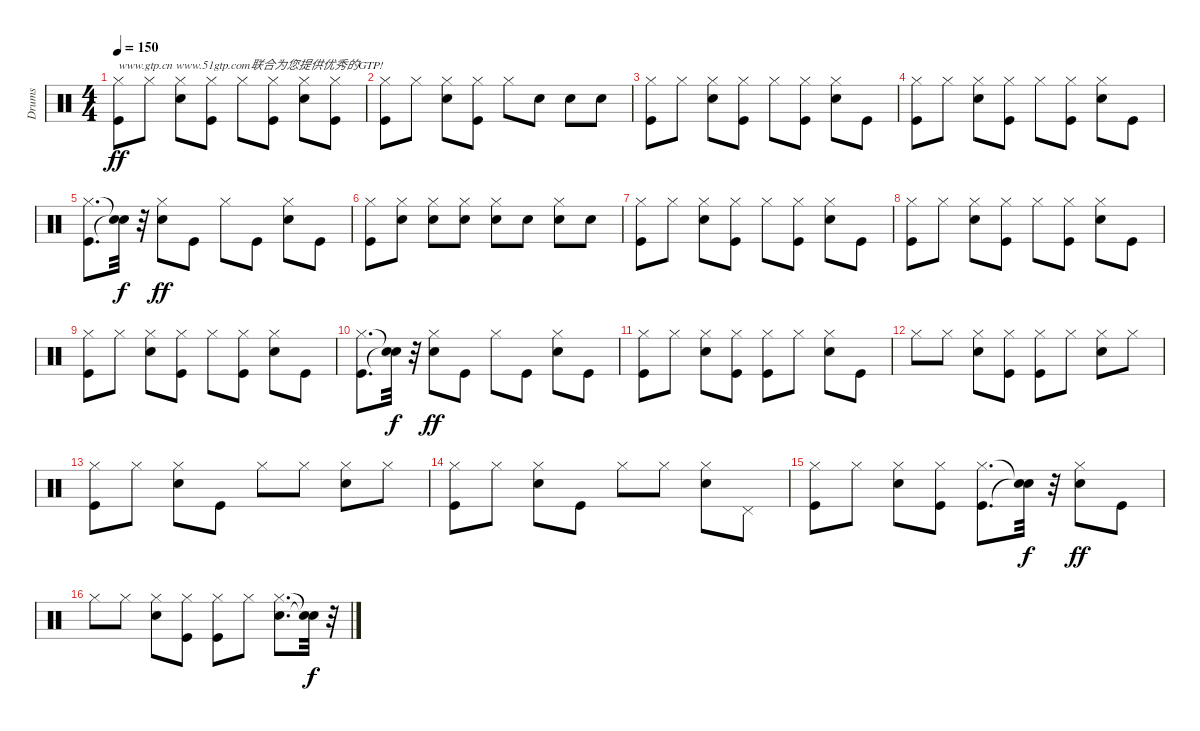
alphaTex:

\track ("Drums" "Drums") {instrument percussion}
\staff {score}
\articulation defaults
\ts (4 4)
\tempo 150
\clef neutral
\ks c
("Kick (hit)" "Hi-Hat (closed)").8{txt "www.gtp.cn www.51gtp.com联合为您提供优秀的GTP!" dy ff} "Hi-Hat (closed)".8 ("Snare (hit) 2" "Hi-Hat (closed)").8 ("Kick (hit)" "Hi-Hat (closed)").8 "Hi-Hat (closed)".8 ("Kick (hit)" "Hi-Hat (closed)").8 ("Snare (hit) 2" "Hi-Hat (closed)").8 ("Kick (hit)" "Hi-Hat (closed)").8 |
("Kick (hit)" "Hi-Hat (closed)").8 "Hi-Hat (closed)".8 ("Snare (hit) 2" "Hi-Hat (closed)").8 ("Kick (hit)" "Hi-Hat (closed)").8 "Hi-Hat (closed)".8 "Snare (hit) 2".8 "Snare (hit) 2".8 "Snare (hit) 2".8 |
("Kick (hit)" "Hi-Hat (closed)").8 "Hi-Hat (closed)".8 ("Snare (hit) 2" "Hi-Hat (closed)").8 ("Kick (hit)" "Hi-Hat (closed)").8 "Hi-Hat (closed)".8 ("Kick (hit)" "Hi-Hat (closed)").8 ("Snare (hit) 2" "Hi-Hat (closed)").8 "Kick (hit)".8 |
("Kick (hit)" "Hi-Hat (closed)").8 "Hi-Hat (closed)".8 ("Snare (hit) 2" "Hi-Hat (closed)").8 ("Kick (hit)" "Hi-Hat (closed)").8 "Hi-Hat (closed)".8 ("Kick (hit)" "Hi-Hat (closed)").8 ("Snare (hit) 2" "Hi-Hat (closed)").8 "Kick (hit)".8 |
("Kick (hit)" "Hi-Hat (closed)").8{d} ("Snare (hit)"{t} "Snare (hit)"{t}).32{dy f} r.32 ("Snare (hit) 2" "Hi-Hat (closed)").8{dy ff} "Kick (hit)".8 "Hi-Hat (closed)".8 "Kick (hit)".8 ("Snare (hit) 2" "Hi-Hat (closed)").8 "Kick (hit)".8 |
("Kick (hit)" "Hi-Hat (closed)").8 ("Snare (hit) 2" "Hi-Hat (closed)").8 ("Snare (hit) 2" "Hi-Hat (closed)").8 ("Snare (hit) 2" "Hi-Hat (closed)").8 ("Snare (hit) 2" "Hi-Hat (closed)").8 "Snare (hit) 2".8 ("Snare (hit) 2" "Hi-Hat (closed)").8 "Snare (hit) 2".8 |
("Kick (hit)" "Hi-Hat (closed)").8 "Hi-Hat (closed)".8 ("Snare (hit) 2" "Hi-Hat (closed)").8 ("Kick (hit)" "Hi-Hat (closed)").8 "Hi-Hat (closed)".8 ("Kick (hit)" "Hi-Hat (closed)").8 ("Snare (hit) 2" "Hi-Hat (closed)").8 "Kick (hit)".8 |
("Kick (hit)" "Hi-Hat (closed)").8 "Hi-Hat (closed)".8 ("Snare (hit) 2" "Hi-Hat (closed)").8 ("Kick (hit)" "Hi-Hat (closed)").8 "Hi-Hat (closed)".8 ("Kick (hit)" "Hi-Hat (closed)").8 ("Snare (hit) 2" "Hi-Hat (closed)").8 "Kick (hit)".8 |
("Kick (hit)" "Hi-Hat (closed)").8 "Hi-Hat (closed)".8 ("Snare (hit) 2" "Hi-Hat (closed)").8 ("Kick (hit)" "Hi-Hat (closed)").8 "Hi-Hat (closed)".8 ("Kick (hit)" "Hi-Hat (closed)").8 ("Snare (hit) 2" "Hi-Hat (closed)").8 "Kick (hit)".8 |
("Kick (hit)" "Hi-Hat (closed)").8{d} ("Snare (hit)"{t} "Snare (hit)"{t}).32{dy f} r.32 ("Snare (hit) 2" "Hi-Hat (closed)").8{dy ff} "Kick (hit)".8 "Hi-Hat (closed)".8 "Kick (hit)".8 ("Snare (hit) 2" "Hi-Hat (closed)").8 "Kick (hit)".8 |
("Kick (hit)" "Hi-Hat (closed)").8 "Hi-Hat (closed)".8 ("Snare (hit) 2" "Hi-Hat (closed)").8 ("Kick (hit)" "Hi-Hat (closed)").8 ("Kick (hit)" "Hi-Hat (closed)").8 "Hi-Hat (closed)".8 ("Snare (hit) 2" "Hi-Hat (closed)").8 "Kick (hit)".8 |
"Hi-Hat (closed)".8 "Hi-Hat (closed)".8 ("Snare (hit) 2" "Hi-Hat (closed)").8 ("Kick (hit)" "Hi-Hat (closed)").8 ("Kick (hit)" "Hi-Hat (closed)").8 "Hi-Hat (closed)".8 ("Snare (hit) 2" "Hi-Hat (closed)").8 "Hi-Hat (closed)".8 |
("Kick (hit)" "Hi-Hat (closed)").8 "Hi-Hat (closed)".8 ("Snare (hit) 2" "Hi-Hat (closed)").8 "Kick (hit)".8 "Hi-Hat (closed)".8 "Hi-Hat (closed)".8 ("Snare (hit) 2" "Hi-Hat (closed)").8 "Hi-Hat (closed)".8 |
("Kick (hit)" "Hi-Hat (closed)").8 "Hi-Hat (closed)".8 ("Snare (hit) 2" "Hi-Hat (closed)").8 "Kick (hit)".8 "Hi-Hat (closed)".8 "Hi-Hat (closed)".8 ("Snare (hit) 2" "Hi-Hat (closed)").8 "Pedal Hi-Hat (hit)".8 |
("Kick (hit)" "Hi-Hat (closed)").8 "Hi-Hat (closed)".8 ("Snare (hit) 2" "Hi-Hat (closed)").8 ("Kick (hit)" "Hi-Hat (closed)").8 ("Kick (hit)" "Hi-Hat (closed)").8{d} ("Snare (hit)"{t} "Snare (hit)"{t}).32{dy f} r.32 ("Snare (hit) 2" "Hi-Hat (closed)").8{dy ff} "Kick (hit)".8 |
"Hi-Hat (closed)".8 "Hi-Hat (closed)".8 ("Snare (hit) 2" "Hi-Hat (closed)").8 ("Kick (hit)" "Hi-Hat (closed)").8 ("Kick (hit)" "Hi-Hat (closed)").8 "Hi-Hat (closed)".8 ("Snare (hit) 2" "Hi-Hat (closed)").8{d} ("Snare (hit)"{t} "Snare (hit)"{t}).32{dy f} r.32
